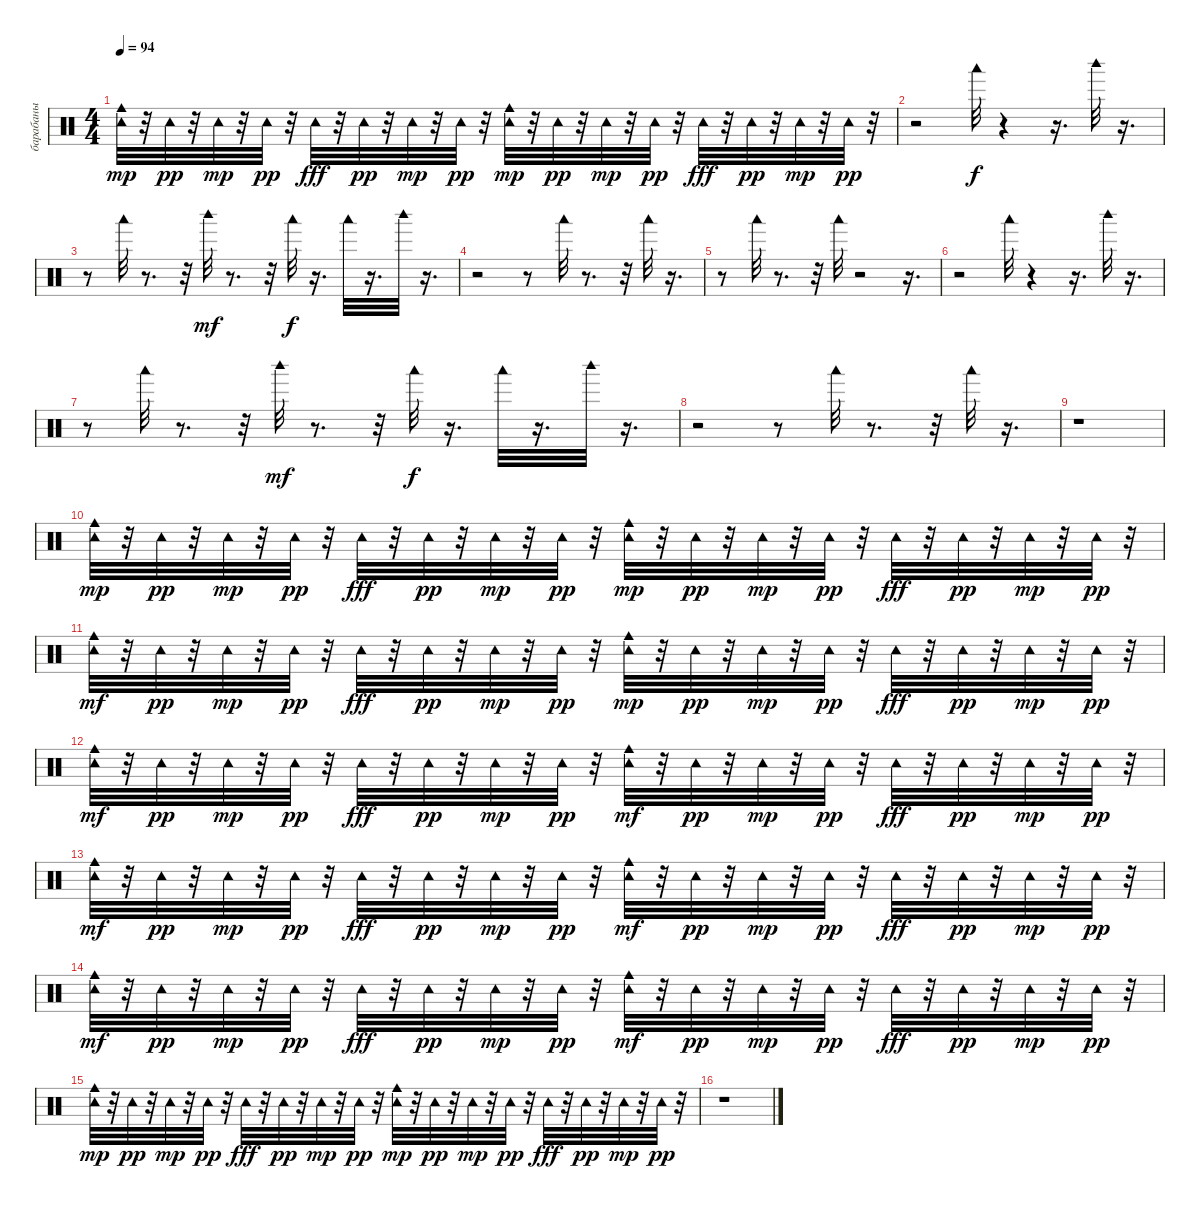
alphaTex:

\track ("барабаны" "барабаны") {instrument percussion}
\staff {score}
\articulation defaults
\ts (4 4)
\tempo 94
\clef neutral
\ks c
("Cowbell medium (hit)" "Tambourine (hit)").32{dy mp} r.32 "Tambourine (hit)".32{dy pp} r.32 "Tambourine (hit)".32{dy mp} r.32 "Tambourine (hit)".32{dy pp} r.32 "Tambourine (hit)".32{dy fff} r.32 "Tambourine (hit)".32{dy pp} r.32 "Tambourine (hit)".32{dy mp} r.32 "Tambourine (hit)".32{dy pp} r.32 ("Cowbell medium (hit)" "Tambourine (hit)").32{dy mp} r.32 "Tambourine (hit)".32{dy pp} r.32 "Tambourine (hit)".32{dy mp} r.32 "Tambourine (hit)".32{dy pp} r.32 "Tambourine (hit)".32{dy fff} r.32 "Tambourine (hit)".32{dy pp} r.32 "Tambourine (hit)".32{dy mp} r.32 "Tambourine (hit)".32{dy pp} r.32 |
r.2 "Woodblock low (hit)".32{dy f} r.4 r.16{d} "Woodblock high (hit)".32 r.16{d} |
r.8 "Woodblock low (hit)".32 r.8{d} r.32 "Woodblock high (hit)".32{dy mf} r.8{d} r.32 "Woodblock low (hit)".32{dy f} r.16{d} "Woodblock low (hit)".32 r.16{d} "Woodblock high (hit)".32 r.16{d} |
r.2 r.8 "Woodblock low (hit)".32 r.8{d} r.32 "Woodblock low (hit)".32 r.16{d} |
r.8 "Woodblock low (hit)".32 r.8{d} r.32 "Woodblock low (hit)".32 r.2 r.16{d} |
r.2 "Woodblock low (hit)".32 r.4 r.16{d} "Woodblock high (hit)".32 r.16{d} |
r.8 "Woodblock low (hit)".32 r.8{d} r.32 "Woodblock high (hit)".32{dy mf} r.8{d} r.32 "Woodblock low (hit)".32{dy f} r.16{d} "Woodblock low (hit)".32 r.16{d} "Woodblock high (hit)".32 r.16{d} |
r.2 r.8 "Woodblock low (hit)".32 r.8{d} r.32 "Woodblock low (hit)".32 r.16{d} |
r.1 |
("Cowbell medium (hit)" "Tambourine (hit)").32{dy mp} r.32 "Tambourine (hit)".32{dy pp} r.32 "Tambourine (hit)".32{dy mp} r.32 "Tambourine (hit)".32{dy pp} r.32 "Tambourine (hit)".32{dy fff} r.32 "Tambourine (hit)".32{dy pp} r.32 "Tambourine (hit)".32{dy mp} r.32 "Tambourine (hit)".32{dy pp} r.32 ("Cowbell medium (hit)" "Tambourine (hit)").32{dy mp} r.32 "Tambourine (hit)".32{dy pp} r.32 "Tambourine (hit)".32{dy mp} r.32 "Tambourine (hit)".32{dy pp} r.32 "Tambourine (hit)".32{dy fff} r.32 "Tambourine (hit)".32{dy pp} r.32 "Tambourine (hit)".32{dy mp} r.32 "Tambourine (hit)".32{dy pp} r.32 |
("Tambourine (hit)" "Cowbell medium (hit)").32{dy mf} r.32 "Tambourine (hit)".32{dy pp} r.32 "Tambourine (hit)".32{dy mp} r.32 "Tambourine (hit)".32{dy pp} r.32 "Tambourine (hit)".32{dy fff} r.32 "Tambourine (hit)".32{dy pp} r.32 "Tambourine (hit)".32{dy mp} r.32 "Tambourine (hit)".32{dy pp} r.32 ("Cowbell medium (hit)" "Tambourine (hit)").32{dy mp} r.32 "Tambourine (hit)".32{dy pp} r.32 "Tambourine (hit)".32{dy mp} r.32 "Tambourine (hit)".32{dy pp} r.32 "Tambourine (hit)".32{dy fff} r.32 "Tambourine (hit)".32{dy pp} r.32 "Tambourine (hit)".32{dy mp} r.32 "Tambourine (hit)".32{dy pp} r.32 |
("Tambourine (hit)" "Cowbell medium (hit)").32{dy mf} r.32 "Tambourine (hit)".32{dy pp} r.32 "Tambourine (hit)".32{dy mp} r.32 "Tambourine (hit)".32{dy pp} r.32 "Tambourine (hit)".32{dy fff} r.32 "Tambourine (hit)".32{dy pp} r.32 "Tambourine (hit)".32{dy mp} r.32 "Tambourine (hit)".32{dy pp} r.32 ("Tambourine (hit)" "Cowbell medium (hit)").32{dy mf} r.32 "Tambourine (hit)".32{dy pp} r.32 "Tambourine (hit)".32{dy mp} r.32 "Tambourine (hit)".32{dy pp} r.32 "Tambourine (hit)".32{dy fff} r.32 "Tambourine (hit)".32{dy pp} r.32 "Tambourine (hit)".32{dy mp} r.32 "Tambourine (hit)".32{dy pp} r.32 |
("Tambourine (hit)" "Cowbell medium (hit)").32{dy mf} r.32 "Tambourine (hit)".32{dy pp} r.32 "Tambourine (hit)".32{dy mp} r.32 "Tambourine (hit)".32{dy pp} r.32 "Tambourine (hit)".32{dy fff} r.32 "Tambourine (hit)".32{dy pp} r.32 "Tambourine (hit)".32{dy mp} r.32 "Tambourine (hit)".32{dy pp} r.32 ("Tambourine (hit)" "Cowbell medium (hit)").32{dy mf} r.32 "Tambourine (hit)".32{dy pp} r.32 "Tambourine (hit)".32{dy mp} r.32 "Tambourine (hit)".32{dy pp} r.32 "Tambourine (hit)".32{dy fff} r.32 "Tambourine (hit)".32{dy pp} r.32 "Tambourine (hit)".32{dy mp} r.32 "Tambourine (hit)".32{dy pp} r.32 |
("Tambourine (hit)" "Cowbell medium (hit)").32{dy mf} r.32 "Tambourine (hit)".32{dy pp} r.32 "Tambourine (hit)".32{dy mp} r.32 "Tambourine (hit)".32{dy pp} r.32 "Tambourine (hit)".32{dy fff} r.32 "Tambourine (hit)".32{dy pp} r.32 "Tambourine (hit)".32{dy mp} r.32 "Tambourine (hit)".32{dy pp} r.32 ("Tambourine (hit)" "Cowbell medium (hit)").32{dy mf} r.32 "Tambourine (hit)".32{dy pp} r.32 "Tambourine (hit)".32{dy mp} r.32 "Tambourine (hit)".32{dy pp} r.32 "Tambourine (hit)".32{dy fff} r.32 "Tambourine (hit)".32{dy pp} r.32 "Tambourine (hit)".32{dy mp} r.32 "Tambourine (hit)".32{dy pp} r.32 |
("Cowbell medium (hit)" "Tambourine (hit)").32{dy mp} r.32 "Tambourine (hit)".32{dy pp} r.32 "Tambourine (hit)".32{dy mp} r.32 "Tambourine (hit)".32{dy pp} r.32 "Tambourine (hit)".32{dy fff} r.32 "Tambourine (hit)".32{dy pp} r.32 "Tambourine (hit)".32{dy mp} r.32 "Tambourine (hit)".32{dy pp} r.32 ("Cowbell medium (hit)" "Tambourine (hit)").32{dy mp} r.32 "Tambourine (hit)".32{dy pp} r.32 "Tambourine (hit)".32{dy mp} r.32 "Tambourine (hit)".32{dy pp} r.32 "Tambourine (hit)".32{dy fff} r.32 "Tambourine (hit)".32{dy pp} r.32 "Tambourine (hit)".32{dy mp} r.32 "Tambourine (hit)".32{dy pp} r.32 |
r.1
